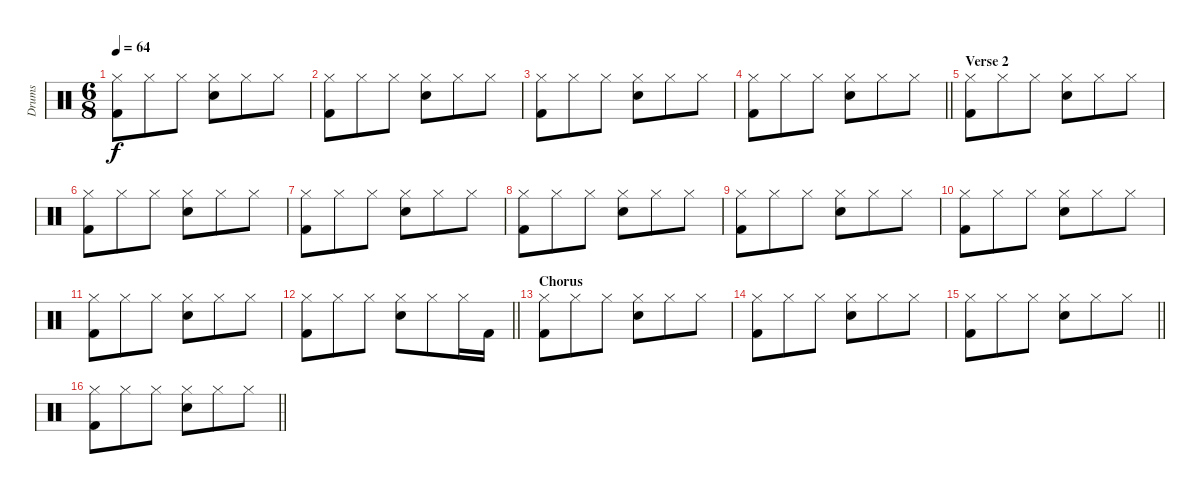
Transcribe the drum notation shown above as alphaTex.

\track ("Drums" "Drums") {instrument percussion}
\staff {score}
\articulation defaults
\ts (6 8)
\tempo 64
\clef neutral
\ks c
("Hi-Hat (closed)" "Kick (hit) 2").8{dy f} "Hi-Hat (closed)".8 "Hi-Hat (closed)".8 ("Hi-Hat (closed)" "Electric Snare (hit)").8 "Hi-Hat (closed)".8 "Hi-Hat (closed)".8 |
("Hi-Hat (closed)" "Kick (hit) 2").8 "Hi-Hat (closed)".8 "Hi-Hat (closed)".8 ("Hi-Hat (closed)" "Electric Snare (hit)").8 "Hi-Hat (closed)".8 "Hi-Hat (closed)".8 |
("Hi-Hat (closed)" "Kick (hit) 2").8 "Hi-Hat (closed)".8 "Hi-Hat (closed)".8 ("Hi-Hat (closed)" "Electric Snare (hit)").8 "Hi-Hat (closed)".8 "Hi-Hat (closed)".8 |
\barLineRight lightlight
("Hi-Hat (closed)" "Kick (hit) 2").8 "Hi-Hat (closed)".8 "Hi-Hat (closed)".8 ("Hi-Hat (closed)" "Electric Snare (hit)").8 "Hi-Hat (closed)".8 "Hi-Hat (closed)".8 |
\section ("" "Verse 2")
("Hi-Hat (closed)" "Kick (hit) 2").8 "Hi-Hat (closed)".8 "Hi-Hat (closed)".8 ("Hi-Hat (closed)" "Electric Snare (hit)").8 "Hi-Hat (closed)".8 "Hi-Hat (closed)".8 |
("Hi-Hat (closed)" "Kick (hit) 2").8 "Hi-Hat (closed)".8 "Hi-Hat (closed)".8 ("Hi-Hat (closed)" "Electric Snare (hit)").8 "Hi-Hat (closed)".8 "Hi-Hat (closed)".8 |
("Hi-Hat (closed)" "Kick (hit) 2").8 "Hi-Hat (closed)".8 "Hi-Hat (closed)".8 ("Hi-Hat (closed)" "Electric Snare (hit)").8 "Hi-Hat (closed)".8 "Hi-Hat (closed)".8 |
("Hi-Hat (closed)" "Kick (hit) 2").8 "Hi-Hat (closed)".8 "Hi-Hat (closed)".8 ("Hi-Hat (closed)" "Electric Snare (hit)").8 "Hi-Hat (closed)".8 "Hi-Hat (closed)".8 |
("Hi-Hat (closed)" "Kick (hit) 2").8 "Hi-Hat (closed)".8 "Hi-Hat (closed)".8 ("Hi-Hat (closed)" "Electric Snare (hit)").8 "Hi-Hat (closed)".8 "Hi-Hat (closed)".8 |
("Hi-Hat (closed)" "Kick (hit) 2").8 "Hi-Hat (closed)".8 "Hi-Hat (closed)".8 ("Hi-Hat (closed)" "Electric Snare (hit)").8 "Hi-Hat (closed)".8 "Hi-Hat (closed)".8 |
("Hi-Hat (closed)" "Kick (hit) 2").8 "Hi-Hat (closed)".8 "Hi-Hat (closed)".8 ("Hi-Hat (closed)" "Electric Snare (hit)").8 "Hi-Hat (closed)".8 "Hi-Hat (closed)".8 |
\barLineRight lightlight
("Hi-Hat (closed)" "Kick (hit) 2").8 "Hi-Hat (closed)".8 "Hi-Hat (closed)".8 ("Hi-Hat (closed)" "Electric Snare (hit)").8 "Hi-Hat (closed)".8 "Hi-Hat (closed)".16 "Kick (hit) 2".16 |
\section ("" "Chorus")
("Hi-Hat (closed)" "Kick (hit) 2").8 "Hi-Hat (closed)".8 "Hi-Hat (closed)".8 ("Hi-Hat (closed)" "Electric Snare (hit)").8 "Hi-Hat (closed)".8 "Hi-Hat (closed)".8 |
("Hi-Hat (closed)" "Kick (hit) 2").8 "Hi-Hat (closed)".8 "Hi-Hat (closed)".8 ("Hi-Hat (closed)" "Electric Snare (hit)").8 "Hi-Hat (closed)".8 "Hi-Hat (closed)".8 |
\barLineRight lightlight
("Hi-Hat (closed)" "Kick (hit) 2").8 "Hi-Hat (closed)".8 "Hi-Hat (closed)".8 ("Hi-Hat (closed)" "Electric Snare (hit)").8 "Hi-Hat (closed)".8 "Hi-Hat (closed)".8 |
\barLineRight lightlight
("Hi-Hat (closed)" "Kick (hit) 2").8 "Hi-Hat (closed)".8 "Hi-Hat (closed)".8 ("Hi-Hat (closed)" "Electric Snare (hit)").8 "Hi-Hat (closed)".8 "Hi-Hat (closed)".8
